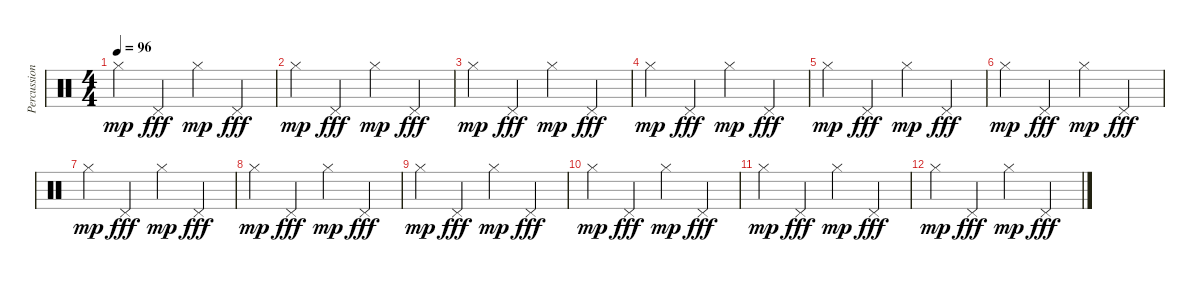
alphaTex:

\track ("Percussions" "Percussion") {instrument percussion}
\staff {score}
\articulation defaults
\ts (4 4)
\tempo 96
\clef neutral
\ks c "Hi-Hat (closed)".4{dy mp} "Pedal Hi-Hat (hit)".4{dy fff} "Hi-Hat (closed)".4{dy mp} "Pedal Hi-Hat (hit)".4{dy fff}
|
"Hi-Hat (closed)".4{dy mp} "Pedal Hi-Hat (hit)".4{dy fff} "Hi-Hat (closed)".4{dy mp} "Pedal Hi-Hat (hit)".4{dy fff} |
"Hi-Hat (closed)".4{dy mp} "Pedal Hi-Hat (hit)".4{dy fff} "Hi-Hat (closed)".4{dy mp} "Pedal Hi-Hat (hit)".4{dy fff} |
"Hi-Hat (closed)".4{dy mp} "Pedal Hi-Hat (hit)".4{dy fff} "Hi-Hat (closed)".4{dy mp} "Pedal Hi-Hat (hit)".4{dy fff} |
"Hi-Hat (closed)".4{dy mp} "Pedal Hi-Hat (hit)".4{dy fff} "Hi-Hat (closed)".4{dy mp} "Pedal Hi-Hat (hit)".4{dy fff} |
"Hi-Hat (closed)".4{dy mp} "Pedal Hi-Hat (hit)".4{dy fff} "Hi-Hat (closed)".4{dy mp} "Pedal Hi-Hat (hit)".4{dy fff} |
"Hi-Hat (closed)".4{dy mp} "Pedal Hi-Hat (hit)".4{dy fff} "Hi-Hat (closed)".4{dy mp} "Pedal Hi-Hat (hit)".4{dy fff} |
"Hi-Hat (closed)".4{dy mp} "Pedal Hi-Hat (hit)".4{dy fff} "Hi-Hat (closed)".4{dy mp} "Pedal Hi-Hat (hit)".4{dy fff} |
"Hi-Hat (closed)".4{dy mp} "Pedal Hi-Hat (hit)".4{dy fff} "Hi-Hat (closed)".4{dy mp} "Pedal Hi-Hat (hit)".4{dy fff} |
"Hi-Hat (closed)".4{dy mp} "Pedal Hi-Hat (hit)".4{dy fff} "Hi-Hat (closed)".4{dy mp} "Pedal Hi-Hat (hit)".4{dy fff} |
"Hi-Hat (closed)".4{dy mp} "Pedal Hi-Hat (hit)".4{dy fff} "Hi-Hat (closed)".4{dy mp} "Pedal Hi-Hat (hit)".4{dy fff} |
"Hi-Hat (closed)".4{dy mp} "Pedal Hi-Hat (hit)".4{dy fff} "Hi-Hat (closed)".4{dy mp} "Pedal Hi-Hat (hit)".4{dy fff}
